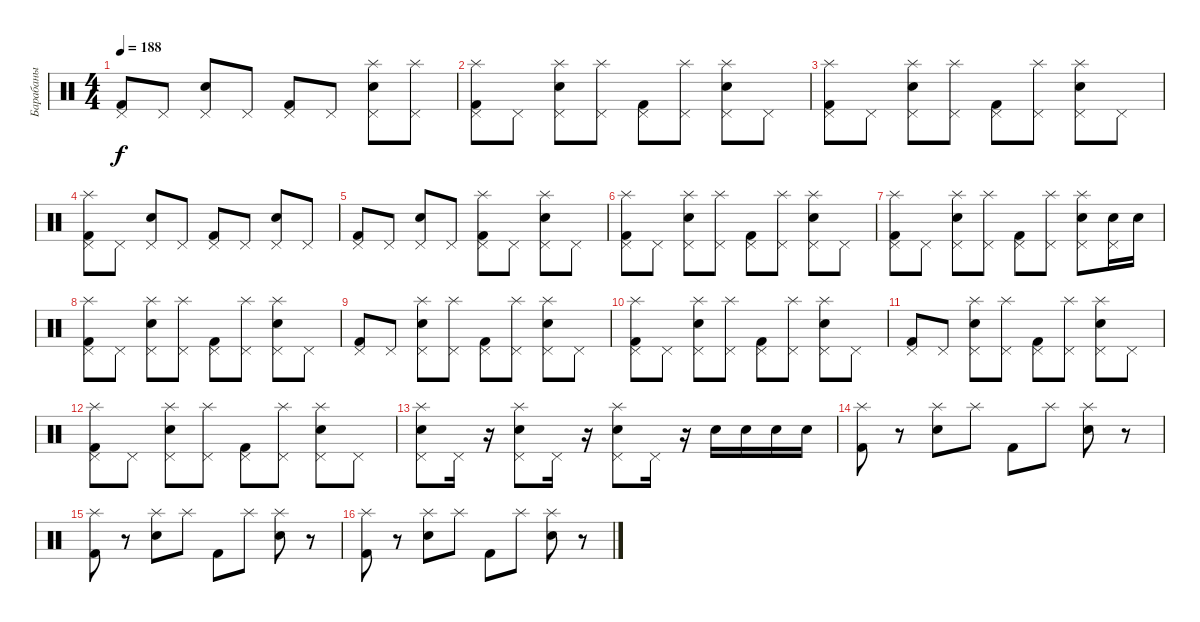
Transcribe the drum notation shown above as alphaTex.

\track ("Барабаны" "Барабаны") {instrument percussion}
\staff {score}
\articulation defaults
\ts (4 4)
\tempo 188
\clef neutral
\ks c
("Pedal Hi-Hat (hit)" "Kick (hit) 2").8{dy f} "Pedal Hi-Hat (hit)".8 ("Pedal Hi-Hat (hit)" "Electric Snare (hit)").8 "Pedal Hi-Hat (hit)".8 ("Pedal Hi-Hat (hit)" "Kick (hit) 2").8 "Pedal Hi-Hat (hit)".8 ("Splash (hit)" "Pedal Hi-Hat (hit)" "Electric Snare (hit)").8 ("Splash (hit)" "Pedal Hi-Hat (hit)").8 |
("Splash (hit)" "Pedal Hi-Hat (hit)" "Kick (hit) 2").8 "Pedal Hi-Hat (hit)".8 ("Pedal Hi-Hat (hit)" "Splash (hit)" "Electric Snare (hit)").8 ("Splash (hit)" "Pedal Hi-Hat (hit)").8 ("Pedal Hi-Hat (hit)" "Kick (hit) 2").8 ("Splash (hit)" "Pedal Hi-Hat (hit)").8 ("Pedal Hi-Hat (hit)" "Splash (hit)" "Electric Snare (hit)").8 "Pedal Hi-Hat (hit)".8 |
("Splash (hit)" "Pedal Hi-Hat (hit)" "Kick (hit) 2").8 "Pedal Hi-Hat (hit)".8 ("Pedal Hi-Hat (hit)" "Splash (hit)" "Electric Snare (hit)").8 ("Pedal Hi-Hat (hit)" "Splash (hit)").8 ("Pedal Hi-Hat (hit)" "Kick (hit) 2").8 ("Splash (hit)" "Pedal Hi-Hat (hit)").8 ("Pedal Hi-Hat (hit)" "Splash (hit)" "Electric Snare (hit)").8 "Pedal Hi-Hat (hit)".8 |
("Splash (hit)" "Pedal Hi-Hat (hit)" "Kick (hit) 2").8 "Pedal Hi-Hat (hit)".8 ("Pedal Hi-Hat (hit)" "Electric Snare (hit)").8 "Pedal Hi-Hat (hit)".8 ("Pedal Hi-Hat (hit)" "Kick (hit) 2").8 "Pedal Hi-Hat (hit)".8 ("Pedal Hi-Hat (hit)" "Electric Snare (hit)").8 "Pedal Hi-Hat (hit)".8 |
("Pedal Hi-Hat (hit)" "Kick (hit) 2").8 "Pedal Hi-Hat (hit)".8 ("Pedal Hi-Hat (hit)" "Electric Snare (hit)").8 "Pedal Hi-Hat (hit)".8 ("Splash (hit)" "Pedal Hi-Hat (hit)" "Kick (hit) 2").8 "Pedal Hi-Hat (hit)".8 ("Splash (hit)" "Pedal Hi-Hat (hit)" "Electric Snare (hit)").8 "Pedal Hi-Hat (hit)".8 |
("Pedal Hi-Hat (hit)" "Kick (hit) 2" "Splash (hit)").8 "Pedal Hi-Hat (hit)".8 ("Pedal Hi-Hat (hit)" "Electric Snare (hit)" "Splash (hit)").8 ("Pedal Hi-Hat (hit)" "Splash (hit)").8 ("Pedal Hi-Hat (hit)" "Kick (hit) 2").8 ("Splash (hit)" "Pedal Hi-Hat (hit)").8 ("Pedal Hi-Hat (hit)" "Electric Snare (hit)" "Splash (hit)").8 "Pedal Hi-Hat (hit)".8 |
("Splash (hit)" "Pedal Hi-Hat (hit)" "Kick (hit) 2").8 "Pedal Hi-Hat (hit)".8 ("Splash (hit)" "Pedal Hi-Hat (hit)" "Electric Snare (hit)").8 ("Splash (hit)" "Pedal Hi-Hat (hit)").8 ("Pedal Hi-Hat (hit)" "Kick (hit) 2").8 ("Splash (hit)" "Pedal Hi-Hat (hit)").8 ("Splash (hit)" "Pedal Hi-Hat (hit)" "Electric Snare (hit)").8 ("Electric Snare (hit)" "Pedal Hi-Hat (hit)").16 "Electric Snare (hit)".16 |
("Splash (hit)" "Pedal Hi-Hat (hit)" "Kick (hit) 2").8 "Pedal Hi-Hat (hit)".8 ("Splash (hit)" "Pedal Hi-Hat (hit)" "Electric Snare (hit)").8 ("Splash (hit)" "Pedal Hi-Hat (hit)").8 ("Pedal Hi-Hat (hit)" "Kick (hit) 2").8 ("Splash (hit)" "Pedal Hi-Hat (hit)").8 ("Splash (hit)" "Pedal Hi-Hat (hit)" "Electric Snare (hit)").8 "Pedal Hi-Hat (hit)".8 |
("Pedal Hi-Hat (hit)" "Kick (hit) 2").8 "Pedal Hi-Hat (hit)".8 ("Splash (hit)" "Pedal Hi-Hat (hit)" "Electric Snare (hit)").8 ("Splash (hit)" "Pedal Hi-Hat (hit)").8 ("Pedal Hi-Hat (hit)" "Kick (hit) 2").8 ("Splash (hit)" "Pedal Hi-Hat (hit)").8 ("Splash (hit)" "Pedal Hi-Hat (hit)" "Electric Snare (hit)").8 "Pedal Hi-Hat (hit)".8 |
("Splash (hit)" "Pedal Hi-Hat (hit)" "Kick (hit) 2").8 "Pedal Hi-Hat (hit)".8 ("Splash (hit)" "Pedal Hi-Hat (hit)" "Electric Snare (hit)").8 ("Splash (hit)" "Pedal Hi-Hat (hit)").8 ("Pedal Hi-Hat (hit)" "Kick (hit) 2").8 ("Splash (hit)" "Pedal Hi-Hat (hit)").8 ("Splash (hit)" "Pedal Hi-Hat (hit)" "Electric Snare (hit)").8 "Pedal Hi-Hat (hit)".8 |
("Pedal Hi-Hat (hit)" "Kick (hit) 2").8 "Pedal Hi-Hat (hit)".8 ("Splash (hit)" "Pedal Hi-Hat (hit)" "Electric Snare (hit)").8 ("Splash (hit)" "Pedal Hi-Hat (hit)").8 ("Pedal Hi-Hat (hit)" "Kick (hit) 2").8 ("Splash (hit)" "Pedal Hi-Hat (hit)").8 ("Splash (hit)" "Pedal Hi-Hat (hit)" "Electric Snare (hit)").8 "Pedal Hi-Hat (hit)".8 |
("Splash (hit)" "Pedal Hi-Hat (hit)" "Kick (hit) 2").8 "Pedal Hi-Hat (hit)".8 ("Splash (hit)" "Pedal Hi-Hat (hit)" "Electric Snare (hit)").8 ("Splash (hit)" "Pedal Hi-Hat (hit)").8 ("Pedal Hi-Hat (hit)" "Kick (hit) 2").8 ("Splash (hit)" "Pedal Hi-Hat (hit)").8 ("Splash (hit)" "Pedal Hi-Hat (hit)" "Electric Snare (hit)").8 "Pedal Hi-Hat (hit)".8 |
("Pedal Hi-Hat (hit)" "Splash (hit)" "Electric Snare (hit)").8 "Pedal Hi-Hat (hit)".16 r.16 ("Pedal Hi-Hat (hit)" "Splash (hit)" "Electric Snare (hit)").8 "Pedal Hi-Hat (hit)".16 r.16 ("Pedal Hi-Hat (hit)" "Splash (hit)" "Electric Snare (hit)").8 "Pedal Hi-Hat (hit)".16 r.16 "Electric Snare (hit)".16 "Electric Snare (hit)".16 "Electric Snare (hit)".16 "Electric Snare (hit)".16 |
("Splash (hit)" "Kick (hit) 2").8 r.8 ("Splash (hit)" "Electric Snare (hit)").8 "Splash (hit)".8 "Kick (hit) 2".8 "Splash (hit)".8 ("Splash (hit)" "Electric Snare (hit)").8 r.8 |
("Splash (hit)" "Kick (hit) 2").8 r.8 ("Splash (hit)" "Electric Snare (hit)").8 "Splash (hit)".8 "Kick (hit) 2".8 "Splash (hit)".8 ("Splash (hit)" "Electric Snare (hit)").8 r.8 |
("Splash (hit)" "Kick (hit) 2").8 r.8 ("Splash (hit)" "Electric Snare (hit)").8 "Splash (hit)".8 "Kick (hit) 2".8 "Splash (hit)".8 ("Splash (hit)" "Electric Snare (hit)").8 r.8
